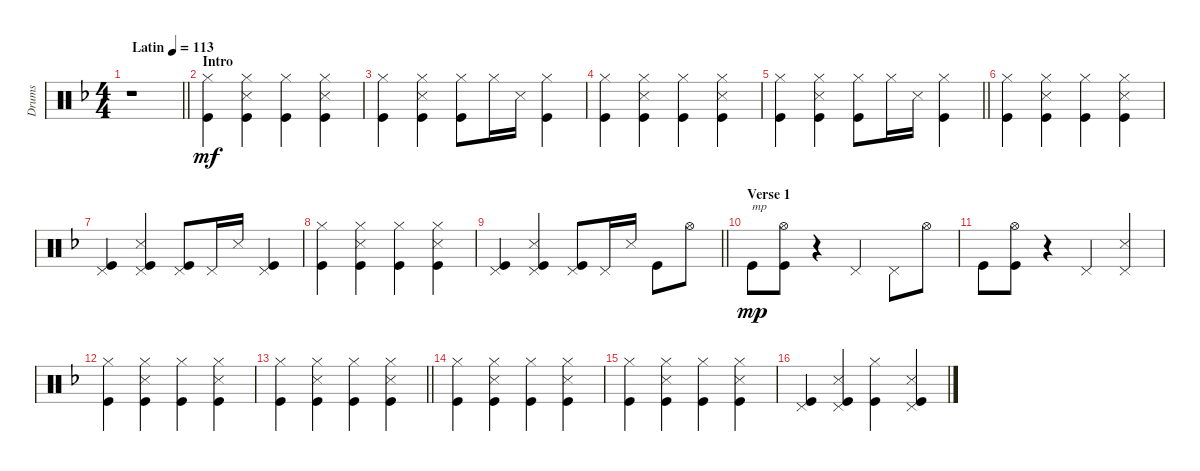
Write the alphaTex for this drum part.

\track ("Drums" "Drums") {instrument percussion}
\staff {score}
\articulation defaults
\ts (4 4)
\section ("" "")
\tempo (113 "Latin")
\clef neutral
\barLineRight lightlight
\ks dminor
r.1{dy mf} |
\section ("" "Intro")
("Hi-Hat (closed)" "Kick (hit)").4 ("Hi-Hat (closed)" "Snare (side stick) 3" "Kick (hit)").4 ("Hi-Hat (closed)" "Kick (hit)").4 ("Hi-Hat (closed)" "Snare (side stick) 3" "Kick (hit)").4 |
("Hi-Hat (closed)" "Kick (hit)").4 ("Hi-Hat (closed)" "Snare (side stick) 3" "Kick (hit)").4 ("Hi-Hat (closed)" "Kick (hit)").8 "Hi-Hat (closed)".16 "Snare (side stick) 3".16 ("Hi-Hat (closed)" "Kick (hit)").4 |
("Hi-Hat (closed)" "Kick (hit)").4 ("Hi-Hat (closed)" "Snare (side stick) 3" "Kick (hit)").4 ("Hi-Hat (closed)" "Kick (hit)").4 ("Hi-Hat (closed)" "Snare (side stick) 3" "Kick (hit)").4 |
\barLineRight lightlight
("Hi-Hat (closed)" "Kick (hit)").4 ("Hi-Hat (closed)" "Snare (side stick) 3" "Kick (hit)").4 ("Hi-Hat (closed)" "Kick (hit)").8 "Hi-Hat (closed)".16 "Snare (side stick) 3".16 ("Hi-Hat (closed)" "Kick (hit)").4 |
\section ("" "")
("Hi-Hat (closed)" "Kick (hit)").4 ("Hi-Hat (closed)" "Snare (side stick) 3" "Kick (hit)").4 ("Hi-Hat (closed)" "Kick (hit)").4 ("Hi-Hat (closed)" "Snare (side stick) 3" "Kick (hit)").4 |
("Pedal Hi-Hat (hit)" "Kick (hit)").4 ("Pedal Hi-Hat (hit)" "Snare (side stick) 3" "Kick (hit)").4 ("Pedal Hi-Hat (hit)" "Kick (hit)").8 "Pedal Hi-Hat (hit)".16 "Snare (side stick) 3".16 ("Pedal Hi-Hat (hit)" "Kick (hit)").4 |
("Hi-Hat (closed)" "Kick (hit)").4 ("Hi-Hat (closed)" "Snare (side stick) 3" "Kick (hit)").4 ("Hi-Hat (closed)" "Kick (hit)").4 ("Hi-Hat (closed)" "Snare (side stick) 3" "Kick (hit)").4 |
\barLineRight lightlight
("Pedal Hi-Hat (hit)" "Kick (hit)").4 ("Pedal Hi-Hat (hit)" "Snare (side stick) 3" "Kick (hit)").4 ("Pedal Hi-Hat (hit)" "Kick (hit)").8 "Pedal Hi-Hat (hit)".16 "Snare (side stick) 3".16 "Kick (hit)".8 "Hi-Hat (open)".8 |
\section ("" "Verse 1")
"Kick (hit)".8{txt "mp" dy mp} ("Hi-Hat (open)" "Kick (hit)").8 r.4 "Pedal Hi-Hat (hit)".4 "Pedal Hi-Hat (hit)".8 "Hi-Hat (open)".8 |
"Kick (hit)".8 ("Hi-Hat (open)" "Kick (hit)").8 r.4 "Pedal Hi-Hat (hit)".4 ("Pedal Hi-Hat (hit)" "Snare (side stick) 3").4 |
("Hi-Hat (closed)" "Kick (hit)").4 ("Hi-Hat (closed)" "Snare (side stick) 3" "Kick (hit)").4 ("Hi-Hat (closed)" "Kick (hit)").4 ("Hi-Hat (closed)" "Snare (side stick) 3" "Kick (hit)").4 |
\barLineRight lightlight
("Hi-Hat (closed)" "Kick (hit)").4 ("Hi-Hat (closed)" "Snare (side stick) 3" "Kick (hit)").4 ("Hi-Hat (closed)" "Kick (hit)").4 ("Hi-Hat (closed)" "Snare (side stick) 3" "Kick (hit)").4 |
\section ("" "")
("Hi-Hat (closed)" "Kick (hit)").4 ("Hi-Hat (closed)" "Snare (side stick) 3" "Kick (hit)").4 ("Hi-Hat (closed)" "Kick (hit)").4 ("Hi-Hat (closed)" "Snare (side stick) 3" "Kick (hit)").4 |
("Hi-Hat (closed)" "Kick (hit)").4 ("Hi-Hat (closed)" "Snare (side stick) 3" "Kick (hit)").4 ("Hi-Hat (closed)" "Kick (hit)").4 ("Hi-Hat (closed)" "Snare (side stick) 3" "Kick (hit)").4 |
("Pedal Hi-Hat (hit)" "Kick (hit)").4 ("Pedal Hi-Hat (hit)" "Snare (side stick) 3" "Kick (hit)").4 ("Hi-Hat (closed)" "Kick (hit)").4 ("Pedal Hi-Hat (hit)" "Snare (side stick) 3" "Kick (hit)").4
